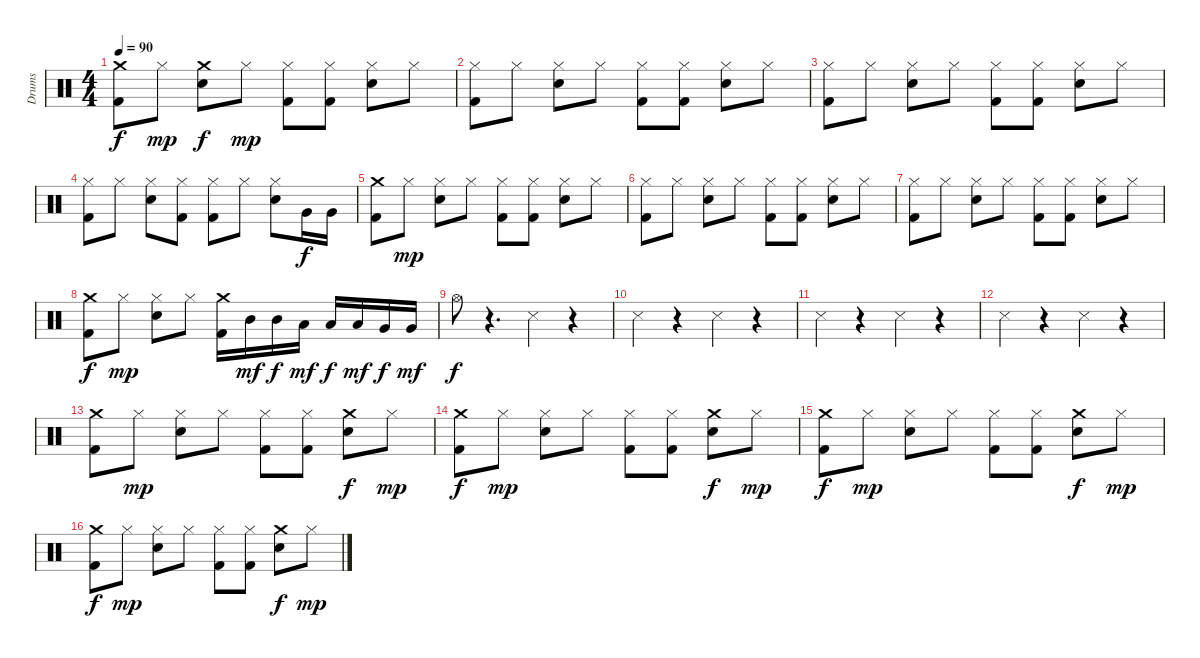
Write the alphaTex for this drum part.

\track ("Drums" "Drums") {instrument percussion}
\staff {score}
\articulation defaults
\ts (4 4)
\tempo 90
\clef neutral
\ks c
("Crash medium (hit)" "Kick (hit) 2").8{dy f} "Hi-Hat (closed)".8{dy mp} ("Crash medium (hit)" "Electric Snare (hit)").8{dy f} "Hi-Hat (closed)".8{dy mp} ("Kick (hit) 2" "Hi-Hat (closed)").8 ("Kick (hit) 2" "Hi-Hat (closed)").8 ("Electric Snare (hit)" "Hi-Hat (closed)").8 "Hi-Hat (closed)".8 |
("Kick (hit) 2" "Hi-Hat (closed)").8 "Hi-Hat (closed)".8 ("Electric Snare (hit)" "Hi-Hat (closed)").8 "Hi-Hat (closed)".8 ("Kick (hit) 2" "Hi-Hat (closed)").8 ("Kick (hit) 2" "Hi-Hat (closed)").8 ("Electric Snare (hit)" "Hi-Hat (closed)").8 "Hi-Hat (closed)".8 |
("Kick (hit) 2" "Hi-Hat (closed)").8 "Hi-Hat (closed)".8 ("Electric Snare (hit)" "Hi-Hat (closed)").8 "Hi-Hat (closed)".8 ("Kick (hit) 2" "Hi-Hat (closed)").8 ("Kick (hit) 2" "Hi-Hat (closed)").8 ("Electric Snare (hit)" "Hi-Hat (closed)").8 "Hi-Hat (closed)".8 |
("Kick (hit) 2" "Hi-Hat (closed)").8 "Hi-Hat (closed)".8 ("Electric Snare (hit)" "Hi-Hat (closed)").8 ("Kick (hit) 2" "Hi-Hat (closed)").8 ("Kick (hit) 2" "Hi-Hat (closed)").8 "Hi-Hat (closed)".8 ("Electric Snare (hit)" "Hi-Hat (closed)").8 "Very Low Tom (hit)".16{dy f} "Very Low Tom (hit)".16 |
("Crash medium (hit)" "Kick (hit) 2").8 "Hi-Hat (closed)".8{dy mp} ("Electric Snare (hit)" "Hi-Hat (closed)").8 "Hi-Hat (closed)".8 ("Kick (hit) 2" "Hi-Hat (closed)").8 ("Kick (hit) 2" "Hi-Hat (closed)").8 ("Electric Snare (hit)" "Hi-Hat (closed)").8 "Hi-Hat (closed)".8 |
("Kick (hit) 2" "Hi-Hat (closed)").8 "Hi-Hat (closed)".8 ("Electric Snare (hit)" "Hi-Hat (closed)").8 "Hi-Hat (closed)".8 ("Kick (hit) 2" "Hi-Hat (closed)").8 ("Kick (hit) 2" "Hi-Hat (closed)").8 ("Electric Snare (hit)" "Hi-Hat (closed)").8 "Hi-Hat (closed)".8 |
("Kick (hit) 2" "Hi-Hat (closed)").8 "Hi-Hat (closed)".8 ("Electric Snare (hit)" "Hi-Hat (closed)").8 "Hi-Hat (closed)".8 ("Kick (hit) 2" "Hi-Hat (closed)").8 ("Kick (hit) 2" "Hi-Hat (closed)").8 ("Electric Snare (hit)" "Hi-Hat (closed)").8 "Hi-Hat (closed)".8 |
("Crash medium (hit)" "Kick (hit) 2").8{dy f} "Hi-Hat (closed)".8{dy mp} ("Electric Snare (hit)" "Hi-Hat (closed)").8 "Hi-Hat (closed)".8 ("Kick (hit) 2" "Crash medium (hit)").16 "Mid Tom (hit)".16{dy mf} "Mid Tom (hit)".16{dy f} "Low Tom (hit)".16{dy mf} "Low Tom (hit)".16{dy f} "Low Tom (hit)".16{dy mf} "Very Low Tom (hit)".16{dy f} "Very Low Tom (hit)".16{dy mf} |
"Hi-Hat (open)".8{dy f} r.4{d} "Snare (side stick) 3".4 r.4 |
"Snare (side stick) 3".4 r.4 "Snare (side stick) 3".4 r.4 |
"Snare (side stick) 3".4 r.4 "Snare (side stick) 3".4 r.4 |
"Snare (side stick) 3".4 r.4 "Snare (side stick) 3".4 r.4 |
("Kick (hit) 2" "Crash medium (hit)").8 "Hi-Hat (closed)".8{dy mp} ("Electric Snare (hit)" "Hi-Hat (closed)").8 "Hi-Hat (closed)".8 ("Kick (hit) 2" "Hi-Hat (closed)").8 ("Kick (hit) 2" "Hi-Hat (closed)").8 ("Crash medium (hit)" "Electric Snare (hit)").8{dy f} "Hi-Hat (closed)".8{dy mp} |
("Kick (hit) 2" "Crash medium (hit)").8{dy f} "Hi-Hat (closed)".8{dy mp} ("Electric Snare (hit)" "Hi-Hat (closed)").8 "Hi-Hat (closed)".8 ("Kick (hit) 2" "Hi-Hat (closed)").8 ("Kick (hit) 2" "Hi-Hat (closed)").8 ("Crash medium (hit)" "Electric Snare (hit)").8{dy f} "Hi-Hat (closed)".8{dy mp} |
("Kick (hit) 2" "Crash medium (hit)").8{dy f} "Hi-Hat (closed)".8{dy mp} ("Electric Snare (hit)" "Hi-Hat (closed)").8 "Hi-Hat (closed)".8 ("Kick (hit) 2" "Hi-Hat (closed)").8 ("Kick (hit) 2" "Hi-Hat (closed)").8 ("Crash medium (hit)" "Electric Snare (hit)").8{dy f} "Hi-Hat (closed)".8{dy mp} |
("Kick (hit) 2" "Crash medium (hit)").8{dy f} "Hi-Hat (closed)".8{dy mp} ("Electric Snare (hit)" "Hi-Hat (closed)").8 "Hi-Hat (closed)".8 ("Kick (hit) 2" "Hi-Hat (closed)").8 ("Kick (hit) 2" "Hi-Hat (closed)").8 ("Crash medium (hit)" "Electric Snare (hit)").8{dy f} "Hi-Hat (closed)".8{dy mp}
